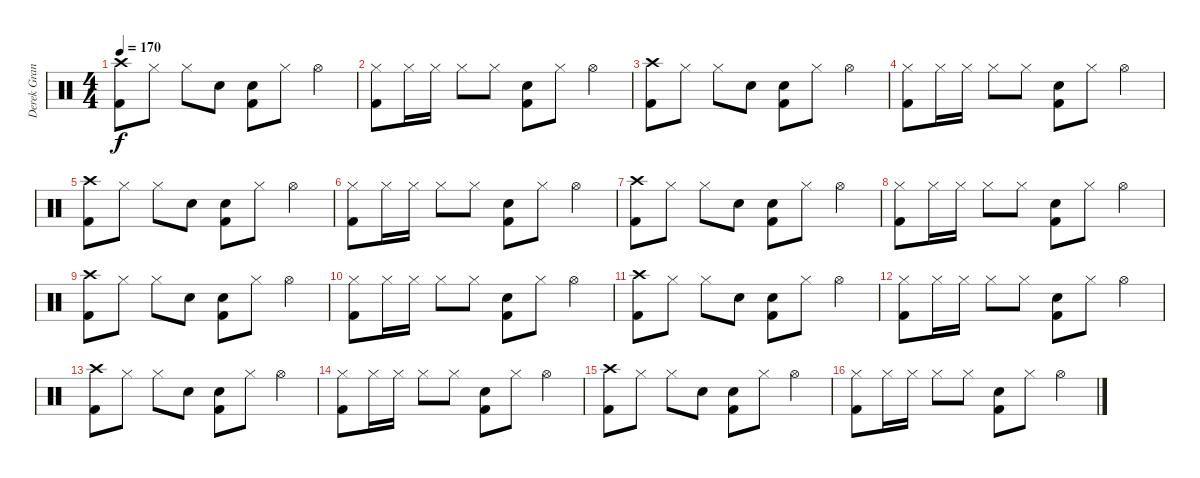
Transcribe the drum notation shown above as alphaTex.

\track ("Derek Grant" "Derek Gran") {instrument percussion}
\staff {score}
\articulation defaults
\ts (4 4)
\tempo 170
\clef neutral
\ks c
("Crash high (hit)" "Kick (hit) 2").8{dy f} "Hi-Hat (closed)".8 "Hi-Hat (closed)".8 "Snare (hit) 2".8 ("Snare (hit) 2" "Kick (hit) 2").8 "Hi-Hat (closed)".8 "Hi-Hat (open)".4 |
("Hi-Hat (closed)" "Kick (hit) 2").8 "Hi-Hat (closed)".16 "Hi-Hat (closed)".16 "Hi-Hat (closed)".8 "Hi-Hat (closed)".8 ("Snare (hit) 2" "Kick (hit) 2").8 "Hi-Hat (closed)".8 "Hi-Hat (open)".4 |
("Crash high (hit)" "Kick (hit) 2").8 "Hi-Hat (closed)".8 "Hi-Hat (closed)".8 "Snare (hit) 2".8 ("Snare (hit) 2" "Kick (hit) 2").8 "Hi-Hat (closed)".8 "Hi-Hat (open)".4 |
("Hi-Hat (closed)" "Kick (hit) 2").8 "Hi-Hat (closed)".16 "Hi-Hat (closed)".16 "Hi-Hat (closed)".8 "Hi-Hat (closed)".8 ("Snare (hit) 2" "Kick (hit) 2").8 "Hi-Hat (closed)".8 "Hi-Hat (open)".4 |
("Crash high (hit)" "Kick (hit) 2").8 "Hi-Hat (closed)".8 "Hi-Hat (closed)".8 "Snare (hit) 2".8 ("Snare (hit) 2" "Kick (hit) 2").8 "Hi-Hat (closed)".8 "Hi-Hat (open)".4 |
("Hi-Hat (closed)" "Kick (hit) 2").8 "Hi-Hat (closed)".16 "Hi-Hat (closed)".16 "Hi-Hat (closed)".8 "Hi-Hat (closed)".8 ("Snare (hit) 2" "Kick (hit) 2").8 "Hi-Hat (closed)".8 "Hi-Hat (open)".4 |
("Crash high (hit)" "Kick (hit) 2").8 "Hi-Hat (closed)".8 "Hi-Hat (closed)".8 "Snare (hit) 2".8 ("Snare (hit) 2" "Kick (hit) 2").8 "Hi-Hat (closed)".8 "Hi-Hat (open)".4 |
("Hi-Hat (closed)" "Kick (hit) 2").8 "Hi-Hat (closed)".16 "Hi-Hat (closed)".16 "Hi-Hat (closed)".8 "Hi-Hat (closed)".8 ("Snare (hit) 2" "Kick (hit) 2").8 "Hi-Hat (closed)".8 "Hi-Hat (open)".4 |
("Crash high (hit)" "Kick (hit) 2").8 "Hi-Hat (closed)".8 "Hi-Hat (closed)".8 "Snare (hit) 2".8 ("Snare (hit) 2" "Kick (hit) 2").8 "Hi-Hat (closed)".8 "Hi-Hat (open)".4 |
("Hi-Hat (closed)" "Kick (hit) 2").8 "Hi-Hat (closed)".16 "Hi-Hat (closed)".16 "Hi-Hat (closed)".8 "Hi-Hat (closed)".8 ("Snare (hit) 2" "Kick (hit) 2").8 "Hi-Hat (closed)".8 "Hi-Hat (open)".4 |
("Crash high (hit)" "Kick (hit) 2").8 "Hi-Hat (closed)".8 "Hi-Hat (closed)".8 "Snare (hit) 2".8 ("Snare (hit) 2" "Kick (hit) 2").8 "Hi-Hat (closed)".8 "Hi-Hat (open)".4 |
("Hi-Hat (closed)" "Kick (hit) 2").8 "Hi-Hat (closed)".16 "Hi-Hat (closed)".16 "Hi-Hat (closed)".8 "Hi-Hat (closed)".8 ("Snare (hit) 2" "Kick (hit) 2").8 "Hi-Hat (closed)".8 "Hi-Hat (open)".4 |
("Crash high (hit)" "Kick (hit) 2").8 "Hi-Hat (closed)".8 "Hi-Hat (closed)".8 "Snare (hit) 2".8 ("Snare (hit) 2" "Kick (hit) 2").8 "Hi-Hat (closed)".8 "Hi-Hat (open)".4 |
("Hi-Hat (closed)" "Kick (hit) 2").8 "Hi-Hat (closed)".16 "Hi-Hat (closed)".16 "Hi-Hat (closed)".8 "Hi-Hat (closed)".8 ("Snare (hit) 2" "Kick (hit) 2").8 "Hi-Hat (closed)".8 "Hi-Hat (open)".4 |
("Crash high (hit)" "Kick (hit) 2").8 "Hi-Hat (closed)".8 "Hi-Hat (closed)".8 "Snare (hit) 2".8 ("Snare (hit) 2" "Kick (hit) 2").8 "Hi-Hat (closed)".8 "Hi-Hat (open)".4 |
("Hi-Hat (closed)" "Kick (hit) 2").8 "Hi-Hat (closed)".16 "Hi-Hat (closed)".16 "Hi-Hat (closed)".8 "Hi-Hat (closed)".8 ("Snare (hit) 2" "Kick (hit) 2").8 "Hi-Hat (closed)".8 "Hi-Hat (open)".4
